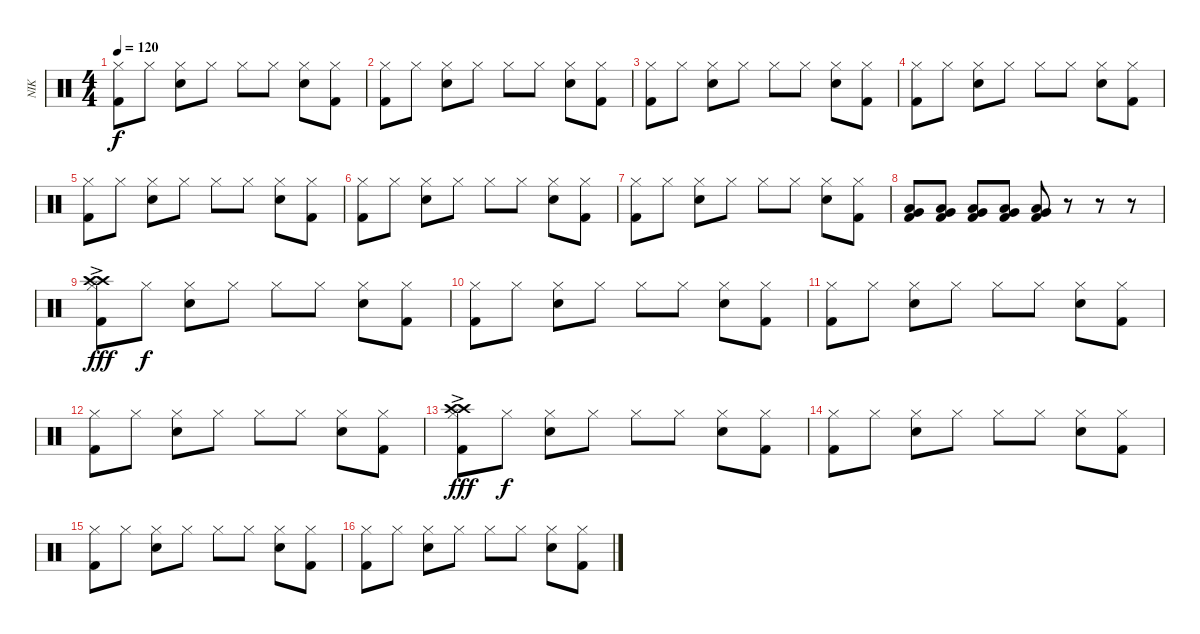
\track ("NIK" "NIK") {instrument percussion}
\staff {score}
\articulation defaults
\ts (4 4)
\tempo 120
\clef neutral
\ks c
("Hi-Hat (closed)" "Kick (hit) 2").8{dy f} "Hi-Hat (closed)".8 ("Snare (hit) 2" "Hi-Hat (closed)").8 "Hi-Hat (closed)".8 "Hi-Hat (closed)".8 "Hi-Hat (closed)".8 ("Snare (hit) 2" "Hi-Hat (closed)").8 ("Hi-Hat (closed)" "Kick (hit) 2").8 |
("Hi-Hat (closed)" "Kick (hit) 2").8 "Hi-Hat (closed)".8 ("Snare (hit) 2" "Hi-Hat (closed)").8 "Hi-Hat (closed)".8 "Hi-Hat (closed)".8 "Hi-Hat (closed)".8 ("Snare (hit) 2" "Hi-Hat (closed)").8 ("Hi-Hat (closed)" "Kick (hit) 2").8 |
("Hi-Hat (closed)" "Kick (hit) 2").8 "Hi-Hat (closed)".8 ("Snare (hit) 2" "Hi-Hat (closed)").8 "Hi-Hat (closed)".8 "Hi-Hat (closed)".8 "Hi-Hat (closed)".8 ("Snare (hit) 2" "Hi-Hat (closed)").8 ("Hi-Hat (closed)" "Kick (hit) 2").8 |
("Hi-Hat (closed)" "Kick (hit) 2").8 "Hi-Hat (closed)".8 ("Snare (hit) 2" "Hi-Hat (closed)").8 "Hi-Hat (closed)".8 "Hi-Hat (closed)".8 "Hi-Hat (closed)".8 ("Snare (hit) 2" "Hi-Hat (closed)").8 ("Hi-Hat (closed)" "Kick (hit) 2").8 |
("Hi-Hat (closed)" "Kick (hit) 2").8 "Hi-Hat (closed)".8 ("Snare (hit) 2" "Hi-Hat (closed)").8 "Hi-Hat (closed)".8 "Hi-Hat (closed)".8 "Hi-Hat (closed)".8 ("Snare (hit) 2" "Hi-Hat (closed)").8 ("Hi-Hat (closed)" "Kick (hit) 2").8 |
("Hi-Hat (closed)" "Kick (hit) 2").8 "Hi-Hat (closed)".8 ("Snare (hit) 2" "Hi-Hat (closed)").8 "Hi-Hat (closed)".8 "Hi-Hat (closed)".8 "Hi-Hat (closed)".8 ("Snare (hit) 2" "Hi-Hat (closed)").8 ("Hi-Hat (closed)" "Kick (hit) 2").8 |
("Hi-Hat (closed)" "Kick (hit) 2").8 "Hi-Hat (closed)".8 ("Snare (hit) 2" "Hi-Hat (closed)").8 "Hi-Hat (closed)".8 "Hi-Hat (closed)".8 "Hi-Hat (closed)".8 ("Snare (hit) 2" "Hi-Hat (closed)").8 ("Hi-Hat (closed)" "Kick (hit) 2").8 |
("Very Low Tom (hit)" "Low Floor Tom (hit)" "Kick (hit) 2").8 ("Very Low Tom (hit)" "Low Floor Tom (hit)" "Kick (hit) 2").8 ("Very Low Tom (hit)" "Low Floor Tom (hit)" "Kick (hit) 2").8 ("Very Low Tom (hit)" "Low Floor Tom (hit)" "Kick (hit) 2").8 ("Very Low Tom (hit)" "Low Floor Tom (hit)" "Kick (hit) 2").8 r.8 r.8 r.8 |
("Crash high (hit)"{ac} "Crash high (hit)"{ac} "Hi-Hat (closed)" "Kick (hit) 2").8{dy fff} "Hi-Hat (closed)".8{dy f} ("Snare (hit) 2" "Hi-Hat (closed)").8 "Hi-Hat (closed)".8 "Hi-Hat (closed)".8 "Hi-Hat (closed)".8 ("Snare (hit) 2" "Hi-Hat (closed)").8 ("Hi-Hat (closed)" "Kick (hit) 2").8 |
("Hi-Hat (closed)" "Kick (hit) 2").8 "Hi-Hat (closed)".8 ("Snare (hit) 2" "Hi-Hat (closed)").8 "Hi-Hat (closed)".8 "Hi-Hat (closed)".8 "Hi-Hat (closed)".8 ("Snare (hit) 2" "Hi-Hat (closed)").8 ("Hi-Hat (closed)" "Kick (hit) 2").8 |
("Hi-Hat (closed)" "Kick (hit) 2").8 "Hi-Hat (closed)".8 ("Snare (hit) 2" "Hi-Hat (closed)").8 "Hi-Hat (closed)".8 "Hi-Hat (closed)".8 "Hi-Hat (closed)".8 ("Snare (hit) 2" "Hi-Hat (closed)").8 ("Hi-Hat (closed)" "Kick (hit) 2").8 |
("Hi-Hat (closed)" "Kick (hit) 2").8 "Hi-Hat (closed)".8 ("Snare (hit) 2" "Hi-Hat (closed)").8 "Hi-Hat (closed)".8 "Hi-Hat (closed)".8 "Hi-Hat (closed)".8 ("Snare (hit) 2" "Hi-Hat (closed)").8 ("Hi-Hat (closed)" "Kick (hit) 2").8 |
("Crash high (hit)"{ac} "Crash high (hit)"{ac} "Hi-Hat (closed)" "Kick (hit) 2").8{dy fff} "Hi-Hat (closed)".8{dy f} ("Snare (hit) 2" "Hi-Hat (closed)").8 "Hi-Hat (closed)".8 "Hi-Hat (closed)".8 "Hi-Hat (closed)".8 ("Snare (hit) 2" "Hi-Hat (closed)").8 ("Hi-Hat (closed)" "Kick (hit) 2").8 |
("Hi-Hat (closed)" "Kick (hit) 2").8 "Hi-Hat (closed)".8 ("Snare (hit) 2" "Hi-Hat (closed)").8 "Hi-Hat (closed)".8 "Hi-Hat (closed)".8 "Hi-Hat (closed)".8 ("Snare (hit) 2" "Hi-Hat (closed)").8 ("Hi-Hat (closed)" "Kick (hit) 2").8 |
("Hi-Hat (closed)" "Kick (hit) 2").8 "Hi-Hat (closed)".8 ("Snare (hit) 2" "Hi-Hat (closed)").8 "Hi-Hat (closed)".8 "Hi-Hat (closed)".8 "Hi-Hat (closed)".8 ("Snare (hit) 2" "Hi-Hat (closed)").8 ("Hi-Hat (closed)" "Kick (hit) 2").8 |
("Hi-Hat (closed)" "Kick (hit) 2").8 "Hi-Hat (closed)".8 ("Snare (hit) 2" "Hi-Hat (closed)").8 "Hi-Hat (closed)".8 "Hi-Hat (closed)".8 "Hi-Hat (closed)".8 ("Snare (hit) 2" "Hi-Hat (closed)").8 ("Hi-Hat (closed)" "Kick (hit) 2").8
